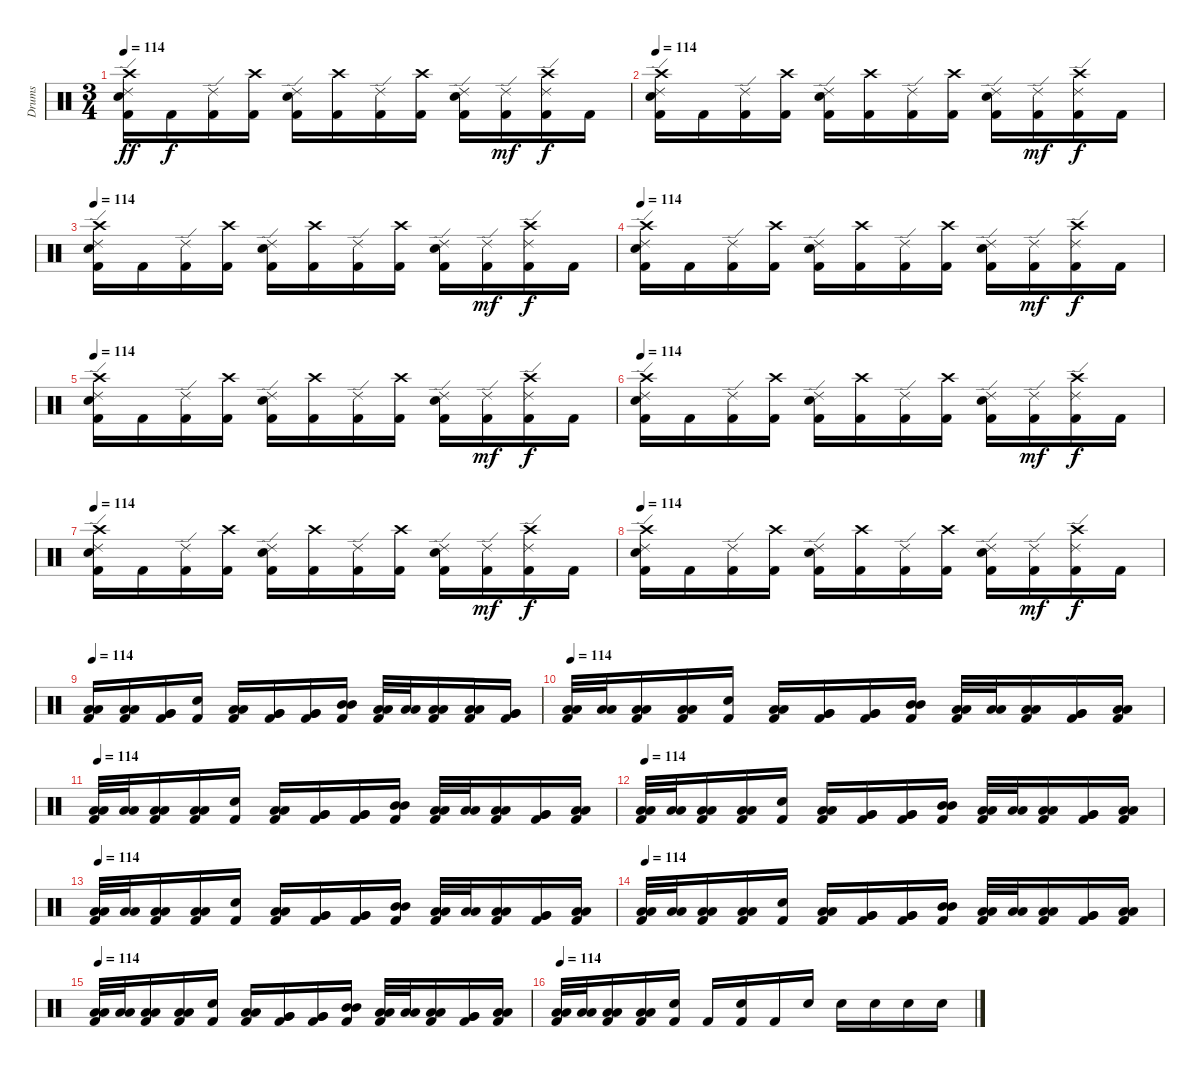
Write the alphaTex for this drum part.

\track ("Drums" "Drums") {instrument percussion}
\staff {score}
\articulation defaults
\ts (3 4)
\tempo 114
\clef neutral
\ks c
("Kick (hit) 2" "Electric Snare (hit)" "Ride (edge) 2" "Crash high (hit)").16{dy ff} "Kick (hit) 2".16{dy f} ("Kick (hit) 2" "Ride (edge) 2").16 ("Kick (hit) 2" "Crash high (hit)").16 ("Kick (hit) 2" "Electric Snare (hit)" "Ride (edge) 2").16 ("Kick (hit) 2" "Crash high (hit)").16 ("Kick (hit) 2" "Ride (edge) 2").16 ("Kick (hit) 2" "Crash high (hit)").16 ("Kick (hit) 2" "Electric Snare (hit)" "Ride (edge) 2").16 ("Kick (hit) 2" "Ride (edge) 2").16{dy mf} ("Kick (hit) 2" "Ride (edge) 2" "Crash high (hit)").16{dy f} "Kick (hit) 2".16 |
\tempo 114
("Kick (hit) 2" "Electric Snare (hit)" "Ride (edge) 2" "Crash high (hit)").16 "Kick (hit) 2".16 ("Kick (hit) 2" "Ride (edge) 2").16 ("Kick (hit) 2" "Crash high (hit)").16 ("Kick (hit) 2" "Electric Snare (hit)" "Ride (edge) 2").16 ("Kick (hit) 2" "Crash high (hit)").16 ("Kick (hit) 2" "Ride (edge) 2").16 ("Kick (hit) 2" "Crash high (hit)").16 ("Kick (hit) 2" "Electric Snare (hit)" "Ride (edge) 2").16 ("Kick (hit) 2" "Ride (edge) 2").16{dy mf} ("Kick (hit) 2" "Ride (edge) 2" "Crash high (hit)").16{dy f} "Kick (hit) 2".16 |
\tempo 114
("Kick (hit) 2" "Electric Snare (hit)" "Ride (edge) 2" "Crash high (hit)").16 "Kick (hit) 2".16 ("Kick (hit) 2" "Ride (edge) 2").16 ("Kick (hit) 2" "Crash high (hit)").16 ("Kick (hit) 2" "Electric Snare (hit)" "Ride (edge) 2").16 ("Kick (hit) 2" "Crash high (hit)").16 ("Kick (hit) 2" "Ride (edge) 2").16 ("Kick (hit) 2" "Crash high (hit)").16 ("Kick (hit) 2" "Electric Snare (hit)" "Ride (edge) 2").16 ("Kick (hit) 2" "Ride (edge) 2").16{dy mf} ("Kick (hit) 2" "Ride (edge) 2" "Crash high (hit)").16{dy f} "Kick (hit) 2".16 |
\tempo 114
("Kick (hit) 2" "Electric Snare (hit)" "Ride (edge) 2" "Crash high (hit)").16 "Kick (hit) 2".16 ("Kick (hit) 2" "Ride (edge) 2").16 ("Kick (hit) 2" "Crash high (hit)").16 ("Kick (hit) 2" "Electric Snare (hit)" "Ride (edge) 2").16 ("Kick (hit) 2" "Crash high (hit)").16 ("Kick (hit) 2" "Ride (edge) 2").16 ("Kick (hit) 2" "Crash high (hit)").16 ("Kick (hit) 2" "Electric Snare (hit)" "Ride (edge) 2").16 ("Kick (hit) 2" "Ride (edge) 2").16{dy mf} ("Kick (hit) 2" "Ride (edge) 2" "Crash high (hit)").16{dy f} "Kick (hit) 2".16 |
\tempo 114
("Kick (hit) 2" "Electric Snare (hit)" "Ride (edge) 2" "Crash high (hit)").16 "Kick (hit) 2".16 ("Kick (hit) 2" "Ride (edge) 2").16 ("Kick (hit) 2" "Crash high (hit)").16 ("Kick (hit) 2" "Electric Snare (hit)" "Ride (edge) 2").16 ("Kick (hit) 2" "Crash high (hit)").16 ("Kick (hit) 2" "Ride (edge) 2").16 ("Kick (hit) 2" "Crash high (hit)").16 ("Kick (hit) 2" "Electric Snare (hit)" "Ride (edge) 2").16 ("Kick (hit) 2" "Ride (edge) 2").16{dy mf} ("Kick (hit) 2" "Ride (edge) 2" "Crash high (hit)").16{dy f} "Kick (hit) 2".16 |
\tempo 114
("Kick (hit) 2" "Electric Snare (hit)" "Ride (edge) 2" "Crash high (hit)").16 "Kick (hit) 2".16 ("Kick (hit) 2" "Ride (edge) 2").16 ("Kick (hit) 2" "Crash high (hit)").16 ("Kick (hit) 2" "Electric Snare (hit)" "Ride (edge) 2").16 ("Kick (hit) 2" "Crash high (hit)").16 ("Kick (hit) 2" "Ride (edge) 2").16 ("Kick (hit) 2" "Crash high (hit)").16 ("Kick (hit) 2" "Electric Snare (hit)" "Ride (edge) 2").16 ("Kick (hit) 2" "Ride (edge) 2").16{dy mf} ("Kick (hit) 2" "Ride (edge) 2" "Crash high (hit)").16{dy f} "Kick (hit) 2".16 |
\tempo 114
("Kick (hit) 2" "Electric Snare (hit)" "Ride (edge) 2" "Crash high (hit)").16 "Kick (hit) 2".16 ("Kick (hit) 2" "Ride (edge) 2").16 ("Kick (hit) 2" "Crash high (hit)").16 ("Kick (hit) 2" "Electric Snare (hit)" "Ride (edge) 2").16 ("Kick (hit) 2" "Crash high (hit)").16 ("Kick (hit) 2" "Ride (edge) 2").16 ("Kick (hit) 2" "Crash high (hit)").16 ("Kick (hit) 2" "Electric Snare (hit)" "Ride (edge) 2").16 ("Kick (hit) 2" "Ride (edge) 2").16{dy mf} ("Kick (hit) 2" "Ride (edge) 2" "Crash high (hit)").16{dy f} "Kick (hit) 2".16 |
\tempo 114
("Kick (hit) 2" "Electric Snare (hit)" "Ride (edge) 2" "Crash high (hit)").16 "Kick (hit) 2".16 ("Kick (hit) 2" "Ride (edge) 2").16 ("Kick (hit) 2" "Crash high (hit)").16 ("Kick (hit) 2" "Electric Snare (hit)" "Ride (edge) 2").16 ("Kick (hit) 2" "Crash high (hit)").16 ("Kick (hit) 2" "Ride (edge) 2").16 ("Kick (hit) 2" "Crash high (hit)").16 ("Kick (hit) 2" "Electric Snare (hit)" "Ride (edge) 2").16 ("Kick (hit) 2" "Ride (edge) 2").16{dy mf} ("Kick (hit) 2" "Ride (edge) 2" "Crash high (hit)").16{dy f} "Kick (hit) 2".16 |
\tempo 114
("Kick (hit) 2" "Low Tom (hit)" "Low Tom (hit)").16 ("Kick (hit) 2" "Low Tom (hit)" "Low Tom (hit)").16 ("Kick (hit) 2" "Very Low Tom (hit)" "Very Low Tom (hit)").16 ("Kick (hit) 2" "Electric Snare (hit)").16 ("Kick (hit) 2" "Low Tom (hit)" "Low Tom (hit)").16 ("Kick (hit) 2" "Very Low Tom (hit)" "Very Low Tom (hit)").16 ("Kick (hit) 2" "Very Low Tom (hit)" "Very Low Tom (hit)").16 ("Kick (hit) 2" "Mid Tom (hit)" "Mid Tom (hit)").16 ("Kick (hit) 2" "Low Tom (hit)" "Low Tom (hit)").32 ("Low Tom (hit)" "Low Tom (hit)").32 ("Kick (hit) 2" "Low Tom (hit)" "Low Tom (hit)").16 ("Kick (hit) 2" "Low Tom (hit)" "Low Tom (hit)").16 ("Kick (hit) 2" "Very Low Tom (hit)" "Very Low Tom (hit)").16 |
\tempo 114
("Kick (hit) 2" "Low Tom (hit)" "Low Tom (hit)").32 ("Low Tom (hit)" "Low Tom (hit)").32 ("Kick (hit) 2" "Low Tom (hit)" "Low Tom (hit)").16 ("Kick (hit) 2" "Low Tom (hit)" "Low Tom (hit)").16 ("Kick (hit) 2" "Electric Snare (hit)").16 ("Kick (hit) 2" "Low Tom (hit)" "Low Tom (hit)").16 ("Kick (hit) 2" "Very Low Tom (hit)" "Very Low Tom (hit)").16 ("Kick (hit) 2" "Very Low Tom (hit)" "Very Low Tom (hit)").16 ("Kick (hit) 2" "Mid Tom (hit)" "Mid Tom (hit)").16 ("Kick (hit) 2" "Low Tom (hit)" "Low Tom (hit)").32 ("Low Tom (hit)" "Low Tom (hit)").32 ("Kick (hit) 2" "Low Tom (hit)" "Low Tom (hit)").16 ("Kick (hit) 2" "Very Low Tom (hit)" "Very Low Tom (hit)").16 ("Kick (hit) 2" "Low Floor Tom (hit)" "Low Floor Tom (hit)").16 |
\tempo 114
("Kick (hit) 2" "Low Tom (hit)" "Low Tom (hit)").32 ("Low Tom (hit)" "Low Tom (hit)").32 ("Kick (hit) 2" "Low Tom (hit)" "Low Tom (hit)").16 ("Kick (hit) 2" "Low Tom (hit)" "Low Tom (hit)").16 ("Kick (hit) 2" "Electric Snare (hit)").16 ("Kick (hit) 2" "Low Tom (hit)" "Low Tom (hit)").16 ("Kick (hit) 2" "Very Low Tom (hit)" "Very Low Tom (hit)").16 ("Kick (hit) 2" "Very Low Tom (hit)" "Very Low Tom (hit)").16 ("Kick (hit) 2" "Mid Tom (hit)" "Mid Tom (hit)").16 ("Kick (hit) 2" "Low Tom (hit)" "Low Tom (hit)").32 ("Low Tom (hit)" "Low Tom (hit)").32 ("Kick (hit) 2" "Low Tom (hit)" "Low Tom (hit)").16 ("Kick (hit) 2" "Very Low Tom (hit)" "Very Low Tom (hit)").16 ("Kick (hit) 2" "Low Floor Tom (hit)" "Low Floor Tom (hit)").16 |
\tempo 114
("Kick (hit) 2" "Low Tom (hit)" "Low Tom (hit)").32 ("Low Tom (hit)" "Low Tom (hit)").32 ("Kick (hit) 2" "Low Tom (hit)" "Low Tom (hit)").16 ("Kick (hit) 2" "Low Tom (hit)" "Low Tom (hit)").16 ("Kick (hit) 2" "Electric Snare (hit)").16 ("Kick (hit) 2" "Low Tom (hit)" "Low Tom (hit)").16 ("Kick (hit) 2" "Very Low Tom (hit)" "Very Low Tom (hit)").16 ("Kick (hit) 2" "Very Low Tom (hit)" "Very Low Tom (hit)").16 ("Kick (hit) 2" "Mid Tom (hit)" "Mid Tom (hit)").16 ("Kick (hit) 2" "Low Tom (hit)" "Low Tom (hit)").32 ("Low Tom (hit)" "Low Tom (hit)").32 ("Kick (hit) 2" "Low Tom (hit)" "Low Tom (hit)").16 ("Kick (hit) 2" "Very Low Tom (hit)" "Very Low Tom (hit)").16 ("Kick (hit) 2" "Low Floor Tom (hit)" "Low Floor Tom (hit)").16 |
\tempo 114
("Kick (hit) 2" "Low Tom (hit)" "Low Tom (hit)").32 ("Low Tom (hit)" "Low Tom (hit)").32 ("Kick (hit) 2" "Low Tom (hit)" "Low Tom (hit)").16 ("Kick (hit) 2" "Low Tom (hit)" "Low Tom (hit)").16 ("Kick (hit) 2" "Electric Snare (hit)").16 ("Kick (hit) 2" "Low Tom (hit)" "Low Tom (hit)").16 ("Kick (hit) 2" "Very Low Tom (hit)" "Very Low Tom (hit)").16 ("Kick (hit) 2" "Very Low Tom (hit)" "Very Low Tom (hit)").16 ("Kick (hit) 2" "Mid Tom (hit)" "Mid Tom (hit)").16 ("Kick (hit) 2" "Low Tom (hit)" "Low Tom (hit)").32 ("Low Tom (hit)" "Low Tom (hit)").32 ("Kick (hit) 2" "Low Tom (hit)" "Low Tom (hit)").16 ("Kick (hit) 2" "Very Low Tom (hit)" "Very Low Tom (hit)").16 ("Kick (hit) 2" "Low Floor Tom (hit)" "Low Floor Tom (hit)").16 |
\tempo 114
("Kick (hit) 2" "Low Tom (hit)" "Low Tom (hit)").32 ("Low Tom (hit)" "Low Tom (hit)").32 ("Kick (hit) 2" "Low Tom (hit)" "Low Tom (hit)").16 ("Kick (hit) 2" "Low Tom (hit)" "Low Tom (hit)").16 ("Kick (hit) 2" "Electric Snare (hit)").16 ("Kick (hit) 2" "Low Tom (hit)" "Low Tom (hit)").16 ("Kick (hit) 2" "Very Low Tom (hit)" "Very Low Tom (hit)").16 ("Kick (hit) 2" "Very Low Tom (hit)" "Very Low Tom (hit)").16 ("Kick (hit) 2" "Mid Tom (hit)" "Mid Tom (hit)").16 ("Kick (hit) 2" "Low Tom (hit)" "Low Tom (hit)").32 ("Low Tom (hit)" "Low Tom (hit)").32 ("Kick (hit) 2" "Low Tom (hit)" "Low Tom (hit)").16 ("Kick (hit) 2" "Very Low Tom (hit)" "Very Low Tom (hit)").16 ("Kick (hit) 2" "Low Floor Tom (hit)" "Low Floor Tom (hit)").16 |
\tempo 114
("Kick (hit) 2" "Low Tom (hit)" "Low Tom (hit)").32 ("Low Tom (hit)" "Low Tom (hit)").32 ("Kick (hit) 2" "Low Tom (hit)" "Low Tom (hit)").16 ("Kick (hit) 2" "Low Tom (hit)" "Low Tom (hit)").16 ("Kick (hit) 2" "Electric Snare (hit)").16 ("Kick (hit) 2" "Low Tom (hit)" "Low Tom (hit)").16 ("Kick (hit) 2" "Very Low Tom (hit)" "Very Low Tom (hit)").16 ("Kick (hit) 2" "Very Low Tom (hit)" "Very Low Tom (hit)").16 ("Kick (hit) 2" "Mid Tom (hit)" "Mid Tom (hit)").16 ("Kick (hit) 2" "Low Tom (hit)" "Low Tom (hit)").32 ("Low Tom (hit)" "Low Tom (hit)").32 ("Kick (hit) 2" "Low Tom (hit)" "Low Tom (hit)").16 ("Kick (hit) 2" "Very Low Tom (hit)" "Very Low Tom (hit)").16 ("Kick (hit) 2" "Low Floor Tom (hit)" "Low Floor Tom (hit)").16 |
\tempo 114
("Kick (hit) 2" "Low Tom (hit)" "Low Tom (hit)").32 ("Low Tom (hit)" "Low Tom (hit)").32 ("Kick (hit) 2" "Low Tom (hit)" "Low Tom (hit)").16 ("Kick (hit) 2" "Low Tom (hit)" "Low Tom (hit)").16 ("Kick (hit) 2" "Electric Snare (hit)").16 "Kick (hit) 2".16 ("Kick (hit) 2" "Electric Snare (hit)").16 "Kick (hit) 2".16 "Electric Snare (hit)".16 "Electric Snare (hit)".16 "Electric Snare (hit)".16 "Electric Snare (hit)".16 "Electric Snare (hit)".16
